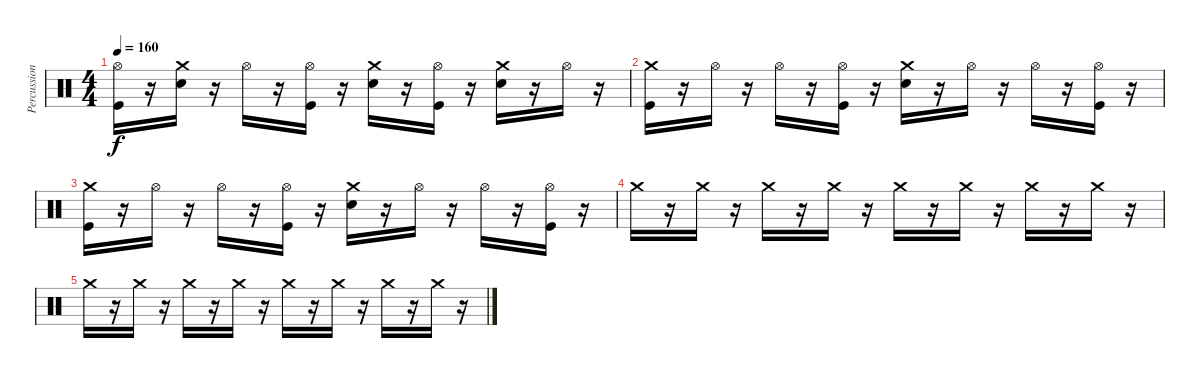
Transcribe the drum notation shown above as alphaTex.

\track ("Percussion" "Percussion") {instrument percussion}
\staff {score}
\articulation defaults
\ts (4 4)
\tempo 160
\clef neutral
\ks c
("Hi-Hat (open)" "Kick (hit)").16{dy f} r.16 ("Crash medium (hit)" "Snare (hit) 2").16 r.16 "Hi-Hat (open)".16 r.16 ("Hi-Hat (open)" "Kick (hit)").16 r.16 ("Crash medium (hit)" "Snare (hit) 2").16 r.16 ("Hi-Hat (open)" "Kick (hit)").16 r.16 ("Crash medium (hit)" "Snare (hit) 2").16 r.16 "Hi-Hat (open)".16 r.16 |
("Crash medium (hit)" "Kick (hit)").16 r.16 "Hi-Hat (open)".16 r.16 "Hi-Hat (open)".16 r.16 ("Hi-Hat (open)" "Kick (hit)").16 r.16 ("Crash medium (hit)" "Snare (hit) 2").16 r.16 "Hi-Hat (open)".16 r.16 "Hi-Hat (open)".16 r.16 ("Hi-Hat (open)" "Kick (hit)").16 r.16 |
("Crash medium (hit)" "Kick (hit)").16 r.16 "Hi-Hat (open)".16 r.16 "Hi-Hat (open)".16 r.16 ("Hi-Hat (open)" "Kick (hit)").16 r.16 ("Crash medium (hit)" "Snare (hit) 2").16 r.16 "Hi-Hat (open)".16 r.16 "Hi-Hat (open)".16 r.16 ("Hi-Hat (open)" "Kick (hit)").16 r.16 |
"Crash medium (hit)".16 r.16 "Crash medium (hit)".16 r.16 "Crash medium (hit)".16 r.16 "Crash medium (hit)".16 r.16 "Crash medium (hit)".16 r.16 "Crash medium (hit)".16 r.16 "Crash medium (hit)".16 r.16 "Crash medium (hit)".16 r.16 |
"Crash medium (hit)".16 r.16 "Crash medium (hit)".16 r.16 "Crash medium (hit)".16 r.16 "Crash medium (hit)".16 r.16 "Crash medium (hit)".16 r.16 "Crash medium (hit)".16 r.16 "Crash medium (hit)".16 r.16 "Crash medium (hit)".16 r.16
